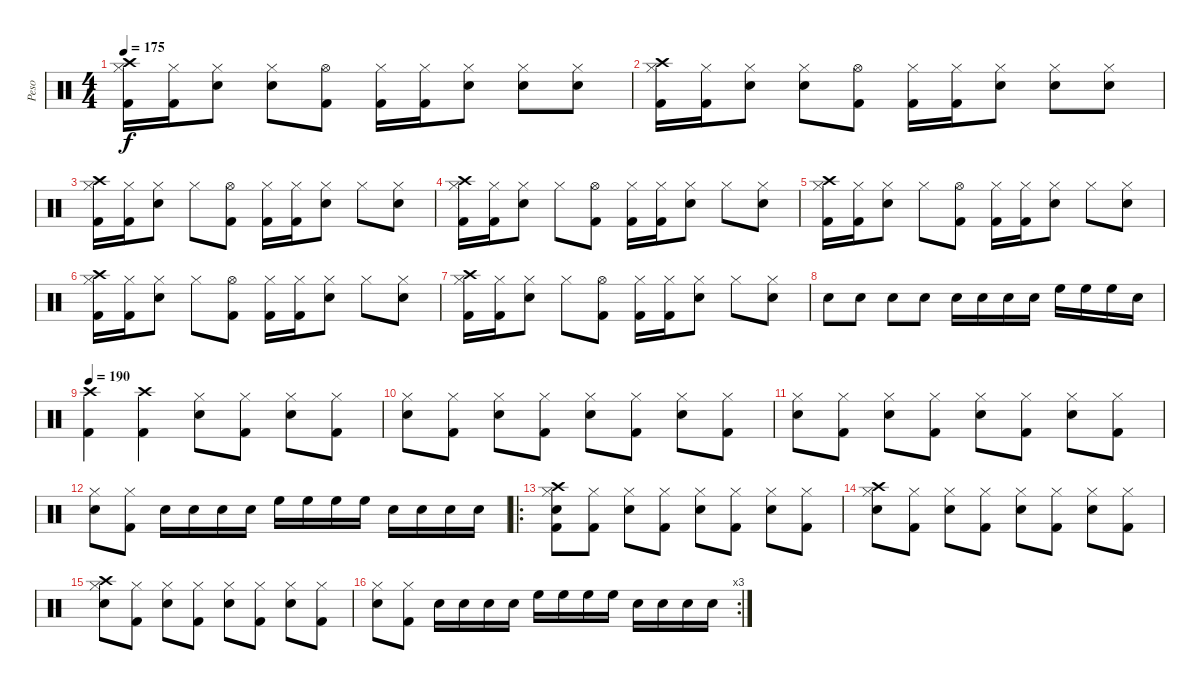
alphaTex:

\track ("Peso" "Peso") {instrument percussion}
\staff {score}
\articulation defaults
\ts (4 4)
\tempo 175
\clef neutral
\ks c
("Crash high (hit)" "Hi-Hat (closed)" "Kick (hit) 2").16{dy f} ("Hi-Hat (closed)" "Kick (hit) 2").16 ("Hi-Hat (closed)" "Snare (hit) 2").8 ("Hi-Hat (closed)" "Snare (hit) 2").8 ("Kick (hit) 2" "Hi-Hat (open)").8 ("Hi-Hat (closed)" "Kick (hit) 2").16 ("Hi-Hat (closed)" "Kick (hit) 2").16 ("Hi-Hat (closed)" "Snare (hit) 2").8 ("Hi-Hat (closed)" "Snare (hit) 2").8 ("Hi-Hat (closed)" "Snare (hit) 2").8 |
("Crash high (hit)" "Hi-Hat (closed)" "Kick (hit) 2").16 ("Hi-Hat (closed)" "Kick (hit) 2").16 ("Hi-Hat (closed)" "Snare (hit) 2").8 ("Hi-Hat (closed)" "Snare (hit) 2").8 ("Kick (hit) 2" "Hi-Hat (open)").8 ("Hi-Hat (closed)" "Kick (hit) 2").16 ("Hi-Hat (closed)" "Kick (hit) 2").16 ("Hi-Hat (closed)" "Snare (hit) 2").8 ("Hi-Hat (closed)" "Snare (hit) 2").8 ("Hi-Hat (closed)" "Snare (hit) 2").8 |
("Crash high (hit)" "Hi-Hat (closed)" "Kick (hit) 2").16 ("Hi-Hat (closed)" "Kick (hit) 2").16 ("Hi-Hat (closed)" "Snare (hit) 2").8 "Hi-Hat (closed)".8 ("Kick (hit) 2" "Hi-Hat (open)").8 ("Hi-Hat (closed)" "Kick (hit) 2").16 ("Hi-Hat (closed)" "Kick (hit) 2").16 ("Hi-Hat (closed)" "Snare (hit) 2").8 "Hi-Hat (closed)".8 ("Hi-Hat (closed)" "Snare (hit) 2").8 |
("Crash high (hit)" "Hi-Hat (closed)" "Kick (hit) 2").16 ("Hi-Hat (closed)" "Kick (hit) 2").16 ("Hi-Hat (closed)" "Snare (hit) 2").8 "Hi-Hat (closed)".8 ("Kick (hit) 2" "Hi-Hat (open)").8 ("Hi-Hat (closed)" "Kick (hit) 2").16 ("Hi-Hat (closed)" "Kick (hit) 2").16 ("Hi-Hat (closed)" "Snare (hit) 2").8 "Hi-Hat (closed)".8 ("Hi-Hat (closed)" "Snare (hit) 2").8 |
("Crash high (hit)" "Hi-Hat (closed)" "Kick (hit) 2").16 ("Hi-Hat (closed)" "Kick (hit) 2").16 ("Hi-Hat (closed)" "Snare (hit) 2").8 "Hi-Hat (closed)".8 ("Kick (hit) 2" "Hi-Hat (open)").8 ("Hi-Hat (closed)" "Kick (hit) 2").16 ("Hi-Hat (closed)" "Kick (hit) 2").16 ("Hi-Hat (closed)" "Snare (hit) 2").8 "Hi-Hat (closed)".8 ("Hi-Hat (closed)" "Snare (hit) 2").8 |
("Crash high (hit)" "Hi-Hat (closed)" "Kick (hit) 2").16 ("Hi-Hat (closed)" "Kick (hit) 2").16 ("Hi-Hat (closed)" "Snare (hit) 2").8 "Hi-Hat (closed)".8 ("Kick (hit) 2" "Hi-Hat (open)").8 ("Hi-Hat (closed)" "Kick (hit) 2").16 ("Hi-Hat (closed)" "Kick (hit) 2").16 ("Hi-Hat (closed)" "Snare (hit) 2").8 "Hi-Hat (closed)".8 ("Hi-Hat (closed)" "Snare (hit) 2").8 |
("Crash high (hit)" "Hi-Hat (closed)" "Kick (hit) 2").16 ("Hi-Hat (closed)" "Kick (hit) 2").16 ("Hi-Hat (closed)" "Snare (hit) 2").8 "Hi-Hat (closed)".8 ("Kick (hit) 2" "Hi-Hat (open)").8 ("Hi-Hat (closed)" "Kick (hit) 2").16 ("Hi-Hat (closed)" "Kick (hit) 2").16 ("Hi-Hat (closed)" "Snare (hit) 2").8 "Hi-Hat (closed)".8 ("Hi-Hat (closed)" "Snare (hit) 2").8 |
"Snare (hit) 2".8 "Snare (hit) 2".8 "Snare (hit) 2".8 "Snare (hit) 2".8 "Snare (hit) 2".16 "Snare (hit) 2".16 "Snare (hit) 2".16 "Snare (hit) 2".16 "High Floor Tom (hit)".16 "High Floor Tom (hit)".16 "High Floor Tom (hit)".16 "Snare (hit) 2".16 |
\tempo 190
("Crash high (hit)" "Kick (hit) 2").4 ("Crash high (hit)" "Kick (hit) 2").4 ("Hi-Hat (closed)" "Snare (hit) 2").8 ("Hi-Hat (closed)" "Kick (hit) 2").8 ("Hi-Hat (closed)" "Snare (hit) 2").8 ("Hi-Hat (closed)" "Kick (hit) 2").8 |
("Hi-Hat (closed)" "Snare (hit) 2").8 ("Hi-Hat (closed)" "Kick (hit) 2").8 ("Hi-Hat (closed)" "Snare (hit) 2").8 ("Hi-Hat (closed)" "Kick (hit) 2").8 ("Hi-Hat (closed)" "Snare (hit) 2").8 ("Hi-Hat (closed)" "Kick (hit) 2").8 ("Hi-Hat (closed)" "Snare (hit) 2").8 ("Hi-Hat (closed)" "Kick (hit) 2").8 |
("Hi-Hat (closed)" "Snare (hit) 2").8 ("Hi-Hat (closed)" "Kick (hit) 2").8 ("Hi-Hat (closed)" "Snare (hit) 2").8 ("Hi-Hat (closed)" "Kick (hit) 2").8 ("Hi-Hat (closed)" "Snare (hit) 2").8 ("Hi-Hat (closed)" "Kick (hit) 2").8 ("Hi-Hat (closed)" "Snare (hit) 2").8 ("Hi-Hat (closed)" "Kick (hit) 2").8 |
("Hi-Hat (closed)" "Snare (hit) 2").8 ("Hi-Hat (closed)" "Kick (hit) 2").8 "Snare (hit) 2".16 "Snare (hit) 2".16 "Snare (hit) 2".16 "Snare (hit) 2".16 "High Floor Tom (hit)".16 "High Floor Tom (hit)".16 "High Floor Tom (hit)".16 "High Floor Tom (hit)".16 "Snare (hit) 2".16 "Snare (hit) 2".16 "Snare (hit) 2".16 "Snare (hit) 2".16 |
\ro
("Crash high (hit)" "Hi-Hat (closed)" "Snare (hit) 2" "Kick (hit) 2").8 ("Hi-Hat (closed)" "Kick (hit) 2").8 ("Hi-Hat (closed)" "Snare (hit) 2").8 ("Hi-Hat (closed)" "Kick (hit) 2").8 ("Hi-Hat (closed)" "Snare (hit) 2").8 ("Hi-Hat (closed)" "Kick (hit) 2").8 ("Hi-Hat (closed)" "Snare (hit) 2").8 ("Hi-Hat (closed)" "Kick (hit) 2").8 |
("Crash high (hit)" "Hi-Hat (closed)" "Snare (hit) 2").8 ("Hi-Hat (closed)" "Kick (hit) 2").8 ("Hi-Hat (closed)" "Snare (hit) 2").8 ("Hi-Hat (closed)" "Kick (hit) 2").8 ("Hi-Hat (closed)" "Snare (hit) 2").8 ("Hi-Hat (closed)" "Kick (hit) 2").8 ("Hi-Hat (closed)" "Snare (hit) 2").8 ("Hi-Hat (closed)" "Kick (hit) 2").8 |
("Crash high (hit)" "Hi-Hat (closed)" "Snare (hit) 2").8 ("Hi-Hat (closed)" "Kick (hit) 2").8 ("Hi-Hat (closed)" "Snare (hit) 2").8 ("Hi-Hat (closed)" "Kick (hit) 2").8 ("Hi-Hat (closed)" "Snare (hit) 2").8 ("Hi-Hat (closed)" "Kick (hit) 2").8 ("Hi-Hat (closed)" "Snare (hit) 2").8 ("Hi-Hat (closed)" "Kick (hit) 2").8 |
\rc 3
("Hi-Hat (closed)" "Snare (hit) 2").8 ("Hi-Hat (closed)" "Kick (hit) 2").8 "Snare (hit) 2".16 "Snare (hit) 2".16 "Snare (hit) 2".16 "Snare (hit) 2".16 "High Floor Tom (hit)".16 "High Floor Tom (hit)".16 "High Floor Tom (hit)".16 "High Floor Tom (hit)".16 "Snare (hit) 2".16 "Snare (hit) 2".16 "Snare (hit) 2".16 "Snare (hit) 2".16
